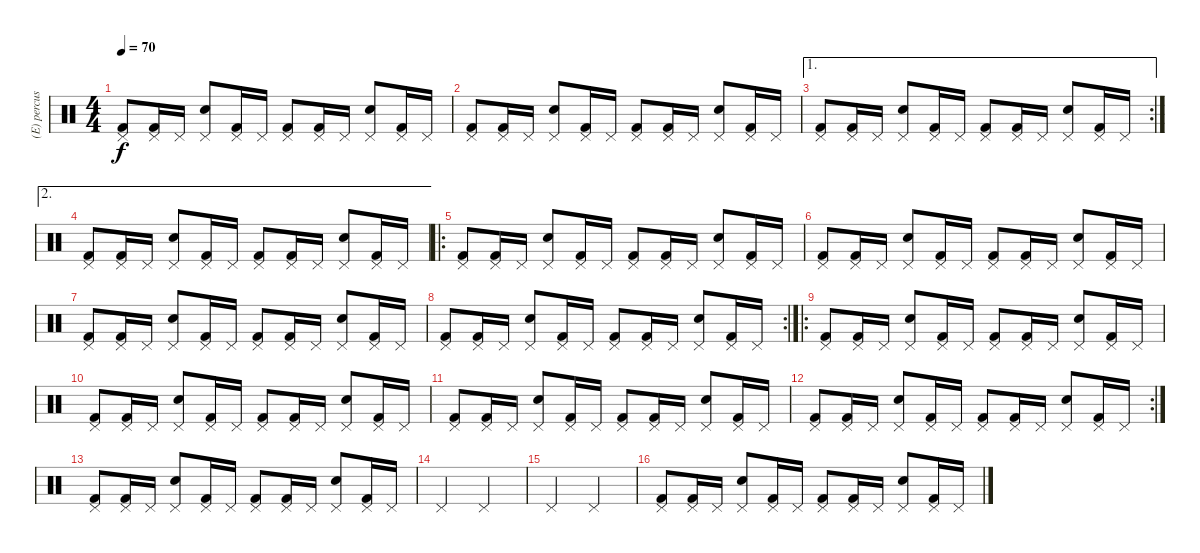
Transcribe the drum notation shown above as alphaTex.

\track ("(E) percussion" "(E) percus") {instrument percussion}
\staff {score}
\articulation defaults
\ts (4 4)
\tempo 70
\clef neutral
\ks c
("Pedal Hi-Hat (hit)" "Kick (hit) 2").8{dy f} ("Pedal Hi-Hat (hit)" "Kick (hit) 2").16 "Pedal Hi-Hat (hit)".16 ("Pedal Hi-Hat (hit)" "Snare (hit) 2").8 ("Pedal Hi-Hat (hit)" "Kick (hit) 2").16 "Pedal Hi-Hat (hit)".16 ("Pedal Hi-Hat (hit)" "Kick (hit) 2").8 ("Pedal Hi-Hat (hit)" "Kick (hit) 2").16 "Pedal Hi-Hat (hit)".16 ("Pedal Hi-Hat (hit)" "Snare (hit) 2").8 ("Pedal Hi-Hat (hit)" "Kick (hit) 2").16 "Pedal Hi-Hat (hit)".16 |
("Pedal Hi-Hat (hit)" "Kick (hit) 2").8 ("Pedal Hi-Hat (hit)" "Kick (hit) 2").16 "Pedal Hi-Hat (hit)".16 ("Pedal Hi-Hat (hit)" "Snare (hit) 2").8 ("Pedal Hi-Hat (hit)" "Kick (hit) 2").16 "Pedal Hi-Hat (hit)".16 ("Pedal Hi-Hat (hit)" "Kick (hit) 2").8 ("Pedal Hi-Hat (hit)" "Kick (hit) 2").16 "Pedal Hi-Hat (hit)".16 ("Pedal Hi-Hat (hit)" "Snare (hit) 2").8 ("Pedal Hi-Hat (hit)" "Kick (hit) 2").16 "Pedal Hi-Hat (hit)".16 |
\ae 1
\rc 2
("Pedal Hi-Hat (hit)" "Kick (hit) 2").8 ("Pedal Hi-Hat (hit)" "Kick (hit) 2").16 "Pedal Hi-Hat (hit)".16 ("Pedal Hi-Hat (hit)" "Snare (hit) 2").8 ("Pedal Hi-Hat (hit)" "Kick (hit) 2").16 "Pedal Hi-Hat (hit)".16 ("Pedal Hi-Hat (hit)" "Kick (hit) 2").8 ("Pedal Hi-Hat (hit)" "Kick (hit) 2").16 "Pedal Hi-Hat (hit)".16 ("Pedal Hi-Hat (hit)" "Snare (hit) 2").8 ("Pedal Hi-Hat (hit)" "Kick (hit) 2").16 "Pedal Hi-Hat (hit)".16 |
\ae 2
("Pedal Hi-Hat (hit)" "Kick (hit) 2").8 ("Pedal Hi-Hat (hit)" "Kick (hit) 2").16 "Pedal Hi-Hat (hit)".16 ("Pedal Hi-Hat (hit)" "Snare (hit) 2").8 ("Pedal Hi-Hat (hit)" "Kick (hit) 2").16 "Pedal Hi-Hat (hit)".16 ("Pedal Hi-Hat (hit)" "Kick (hit) 2").8 ("Pedal Hi-Hat (hit)" "Kick (hit) 2").16 "Pedal Hi-Hat (hit)".16 ("Pedal Hi-Hat (hit)" "Snare (hit) 2").8 ("Pedal Hi-Hat (hit)" "Kick (hit) 2").16 "Pedal Hi-Hat (hit)".16 |
\ro
("Pedal Hi-Hat (hit)" "Kick (hit) 2").8 ("Pedal Hi-Hat (hit)" "Kick (hit) 2").16 "Pedal Hi-Hat (hit)".16 ("Pedal Hi-Hat (hit)" "Snare (hit) 2").8 ("Pedal Hi-Hat (hit)" "Kick (hit) 2").16 "Pedal Hi-Hat (hit)".16 ("Pedal Hi-Hat (hit)" "Kick (hit) 2").8 ("Pedal Hi-Hat (hit)" "Kick (hit) 2").16 "Pedal Hi-Hat (hit)".16 ("Pedal Hi-Hat (hit)" "Snare (hit) 2").8 ("Pedal Hi-Hat (hit)" "Kick (hit) 2").16 "Pedal Hi-Hat (hit)".16 |
("Pedal Hi-Hat (hit)" "Kick (hit) 2").8 ("Pedal Hi-Hat (hit)" "Kick (hit) 2").16 "Pedal Hi-Hat (hit)".16 ("Pedal Hi-Hat (hit)" "Snare (hit) 2").8 ("Pedal Hi-Hat (hit)" "Kick (hit) 2").16 "Pedal Hi-Hat (hit)".16 ("Pedal Hi-Hat (hit)" "Kick (hit) 2").8 ("Pedal Hi-Hat (hit)" "Kick (hit) 2").16 "Pedal Hi-Hat (hit)".16 ("Pedal Hi-Hat (hit)" "Snare (hit) 2").8 ("Pedal Hi-Hat (hit)" "Kick (hit) 2").16 "Pedal Hi-Hat (hit)".16 |
("Pedal Hi-Hat (hit)" "Kick (hit) 2").8 ("Pedal Hi-Hat (hit)" "Kick (hit) 2").16 "Pedal Hi-Hat (hit)".16 ("Pedal Hi-Hat (hit)" "Snare (hit) 2").8 ("Pedal Hi-Hat (hit)" "Kick (hit) 2").16 "Pedal Hi-Hat (hit)".16 ("Pedal Hi-Hat (hit)" "Kick (hit) 2").8 ("Pedal Hi-Hat (hit)" "Kick (hit) 2").16 "Pedal Hi-Hat (hit)".16 ("Pedal Hi-Hat (hit)" "Snare (hit) 2").8 ("Pedal Hi-Hat (hit)" "Kick (hit) 2").16 "Pedal Hi-Hat (hit)".16 |
\rc 2
("Pedal Hi-Hat (hit)" "Kick (hit) 2").8 ("Pedal Hi-Hat (hit)" "Kick (hit) 2").16 "Pedal Hi-Hat (hit)".16 ("Pedal Hi-Hat (hit)" "Snare (hit) 2").8 ("Pedal Hi-Hat (hit)" "Kick (hit) 2").16 "Pedal Hi-Hat (hit)".16 ("Pedal Hi-Hat (hit)" "Kick (hit) 2").8 ("Pedal Hi-Hat (hit)" "Kick (hit) 2").16 "Pedal Hi-Hat (hit)".16 ("Pedal Hi-Hat (hit)" "Snare (hit) 2").8 ("Pedal Hi-Hat (hit)" "Kick (hit) 2").16 "Pedal Hi-Hat (hit)".16 |
\ro
("Pedal Hi-Hat (hit)" "Kick (hit) 2").8 ("Pedal Hi-Hat (hit)" "Kick (hit) 2").16 "Pedal Hi-Hat (hit)".16 ("Pedal Hi-Hat (hit)" "Snare (hit) 2").8 ("Pedal Hi-Hat (hit)" "Kick (hit) 2").16 "Pedal Hi-Hat (hit)".16 ("Pedal Hi-Hat (hit)" "Kick (hit) 2").8 ("Pedal Hi-Hat (hit)" "Kick (hit) 2").16 "Pedal Hi-Hat (hit)".16 ("Pedal Hi-Hat (hit)" "Snare (hit) 2").8 ("Pedal Hi-Hat (hit)" "Kick (hit) 2").16 "Pedal Hi-Hat (hit)".16 |
("Pedal Hi-Hat (hit)" "Kick (hit) 2").8 ("Pedal Hi-Hat (hit)" "Kick (hit) 2").16 "Pedal Hi-Hat (hit)".16 ("Pedal Hi-Hat (hit)" "Snare (hit) 2").8 ("Pedal Hi-Hat (hit)" "Kick (hit) 2").16 "Pedal Hi-Hat (hit)".16 ("Pedal Hi-Hat (hit)" "Kick (hit) 2").8 ("Pedal Hi-Hat (hit)" "Kick (hit) 2").16 "Pedal Hi-Hat (hit)".16 ("Pedal Hi-Hat (hit)" "Snare (hit) 2").8 ("Pedal Hi-Hat (hit)" "Kick (hit) 2").16 "Pedal Hi-Hat (hit)".16 |
("Pedal Hi-Hat (hit)" "Kick (hit) 2").8 ("Pedal Hi-Hat (hit)" "Kick (hit) 2").16 "Pedal Hi-Hat (hit)".16 ("Pedal Hi-Hat (hit)" "Snare (hit) 2").8 ("Pedal Hi-Hat (hit)" "Kick (hit) 2").16 "Pedal Hi-Hat (hit)".16 ("Pedal Hi-Hat (hit)" "Kick (hit) 2").8 ("Pedal Hi-Hat (hit)" "Kick (hit) 2").16 "Pedal Hi-Hat (hit)".16 ("Pedal Hi-Hat (hit)" "Snare (hit) 2").8 ("Pedal Hi-Hat (hit)" "Kick (hit) 2").16 "Pedal Hi-Hat (hit)".16 |
\rc 2
("Pedal Hi-Hat (hit)" "Kick (hit) 2").8 ("Pedal Hi-Hat (hit)" "Kick (hit) 2").16 "Pedal Hi-Hat (hit)".16 ("Pedal Hi-Hat (hit)" "Snare (hit) 2").8 ("Pedal Hi-Hat (hit)" "Kick (hit) 2").16 "Pedal Hi-Hat (hit)".16 ("Pedal Hi-Hat (hit)" "Kick (hit) 2").8 ("Pedal Hi-Hat (hit)" "Kick (hit) 2").16 "Pedal Hi-Hat (hit)".16 ("Pedal Hi-Hat (hit)" "Snare (hit) 2").8 ("Pedal Hi-Hat (hit)" "Kick (hit) 2").16 "Pedal Hi-Hat (hit)".16 |
("Pedal Hi-Hat (hit)" "Kick (hit) 2").8 ("Pedal Hi-Hat (hit)" "Kick (hit) 2").16 "Pedal Hi-Hat (hit)".16 ("Pedal Hi-Hat (hit)" "Snare (hit) 2").8 ("Pedal Hi-Hat (hit)" "Kick (hit) 2").16 "Pedal Hi-Hat (hit)".16 ("Pedal Hi-Hat (hit)" "Kick (hit) 2").8 ("Pedal Hi-Hat (hit)" "Kick (hit) 2").16 "Pedal Hi-Hat (hit)".16 ("Pedal Hi-Hat (hit)" "Snare (hit) 2").8 ("Pedal Hi-Hat (hit)" "Kick (hit) 2").16 "Pedal Hi-Hat (hit)".16 |
"Pedal Hi-Hat (hit)".2 "Pedal Hi-Hat (hit)".2 |
"Pedal Hi-Hat (hit)".2 "Pedal Hi-Hat (hit)".2 |
("Pedal Hi-Hat (hit)" "Kick (hit) 2").8 ("Pedal Hi-Hat (hit)" "Kick (hit) 2").16 "Pedal Hi-Hat (hit)".16 ("Pedal Hi-Hat (hit)" "Snare (hit) 2").8 ("Pedal Hi-Hat (hit)" "Kick (hit) 2").16 "Pedal Hi-Hat (hit)".16 ("Pedal Hi-Hat (hit)" "Kick (hit) 2").8 ("Pedal Hi-Hat (hit)" "Kick (hit) 2").16 "Pedal Hi-Hat (hit)".16 ("Pedal Hi-Hat (hit)" "Snare (hit) 2").8 ("Pedal Hi-Hat (hit)" "Kick (hit) 2").16 "Pedal Hi-Hat (hit)".16
